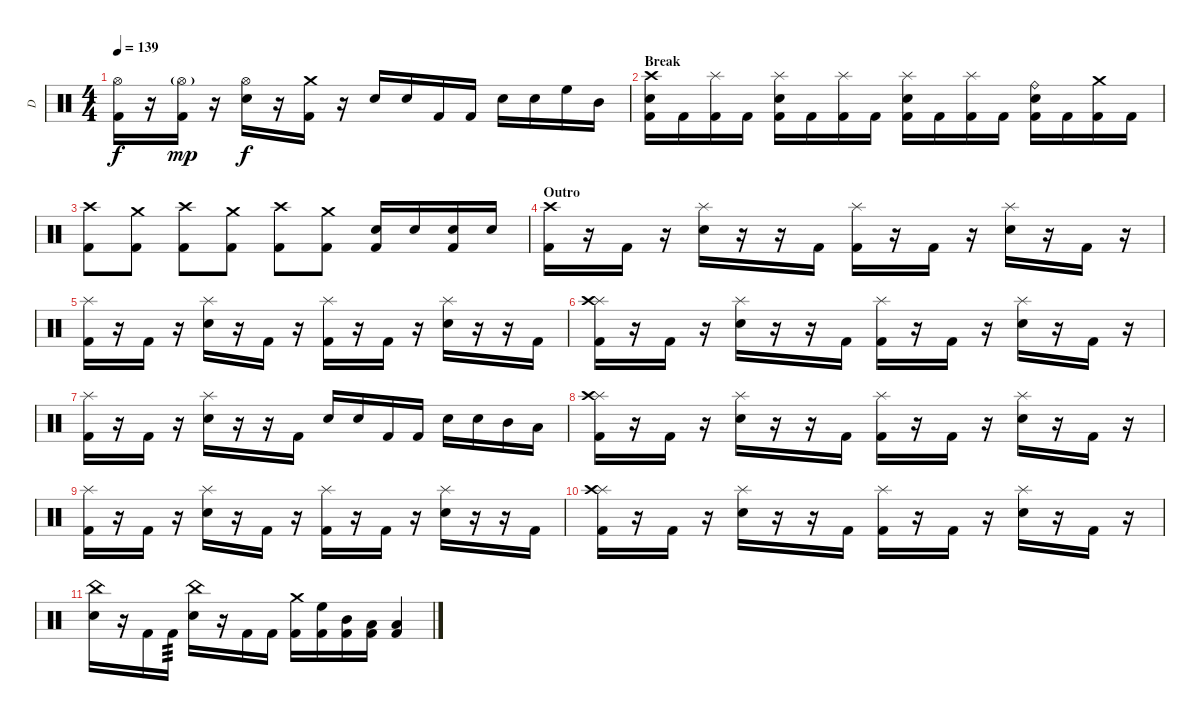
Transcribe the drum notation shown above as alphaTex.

\track ("D" "D") {instrument percussion}
\staff {score}
\articulation defaults
\ts (4 4)
\tempo 139
\clef neutral
\ks c
("Hi-Hat (open)" "Kick (hit) 2").16{dy f} r.16 ("Hi-Hat (open)"{g} "Kick (hit) 2").16{dy mp} r.16 ("Hi-Hat (open)" "Electric Snare (hit)").16{dy f} r.16 ("Crash medium (hit)" "Kick (hit) 2").16 r.16 "Electric Snare (hit)".16 "Electric Snare (hit)".16 "Kick (hit) 2".16 "Kick (hit) 2".16 "Electric Snare (hit)".16 "Electric Snare (hit)".16 "High Floor Tom (hit)".16 "Mid Tom (hit)".16 |
\section ("" "Break")
("Crash high (hit)" "Electric Snare (hit)" "Kick (hit) 2").16 "Kick (hit) 2".16 ("Splash (hit)" "Kick (hit) 2").16 "Kick (hit) 2".16 ("Splash (hit)" "Electric Snare (hit)" "Kick (hit) 2").16 "Kick (hit) 2".16 ("Splash (hit)" "Kick (hit) 2").16 "Kick (hit) 2".16 ("Splash (hit)" "Electric Snare (hit)" "Kick (hit) 2").16 "Kick (hit) 2".16 ("Splash (hit)" "Kick (hit) 2").16 "Kick (hit) 2".16 ("Ride (bell)" "Electric Snare (hit)" "Kick (hit) 2").16 "Kick (hit) 2".16 ("Crash medium (hit)" "Kick (hit) 2").16 "Kick (hit) 2".16 |
("Crash high (hit)" "Kick (hit) 2").8 ("Crash medium (hit)" "Kick (hit) 2").8 ("Crash high (hit)" "Kick (hit) 2").8 ("Crash medium (hit)" "Kick (hit) 2").8 ("Crash high (hit)" "Kick (hit) 2").8 ("Crash medium (hit)" "Kick (hit) 2").8 ("Electric Snare (hit)" "Kick (hit) 2").16 "Electric Snare (hit)".16 ("Electric Snare (hit)" "Kick (hit) 2").16 "Electric Snare (hit)".16 |
\section ("" "Outro")
("Crash high (hit)" "Kick (hit) 2").16 r.16 "Kick (hit) 2".16 r.16 ("Splash (hit)" "Electric Snare (hit)").16 r.16 r.16 "Kick (hit) 2".16 ("Splash (hit)" "Kick (hit) 2").16 r.16 "Kick (hit) 2".16 r.16 ("Splash (hit)" "Electric Snare (hit)").16 r.16 "Kick (hit) 2".16 r.16 |
("Splash (hit)" "Kick (hit) 2").16 r.16 "Kick (hit) 2".16 r.16 ("Splash (hit)" "Electric Snare (hit)").16 r.16 "Kick (hit) 2".16 r.16 ("Splash (hit)" "Kick (hit) 2").16 r.16 "Kick (hit) 2".16 r.16 ("Splash (hit)" "Electric Snare (hit)").16 r.16 r.16 "Kick (hit) 2".16 |
("Splash (hit)" "Crash high (hit)" "Kick (hit) 2").16 r.16 "Kick (hit) 2".16 r.16 ("Splash (hit)" "Electric Snare (hit)").16 r.16 r.16 "Kick (hit) 2".16 ("Splash (hit)" "Kick (hit) 2").16 r.16 "Kick (hit) 2".16 r.16 ("Splash (hit)" "Electric Snare (hit)").16 r.16 "Kick (hit) 2".16 r.16 |
("Splash (hit)" "Kick (hit) 2").16 r.16 "Kick (hit) 2".16 r.16 ("Splash (hit)" "Electric Snare (hit)").16 r.16 r.16 "Kick (hit) 2".16 "Electric Snare (hit)".16 "Electric Snare (hit)".16 "Kick (hit) 2".16 "Kick (hit) 2".16 "Electric Snare (hit)".16 "Electric Snare (hit)".16 "Mid Tom (hit)".16 "Low Tom (hit)".16 |
("Splash (hit)" "Crash high (hit)" "Kick (hit) 2").16 r.16 "Kick (hit) 2".16 r.16 ("Splash (hit)" "Electric Snare (hit)").16 r.16 r.16 "Kick (hit) 2".16 ("Splash (hit)" "Kick (hit) 2").16 r.16 "Kick (hit) 2".16 r.16 ("Splash (hit)" "Electric Snare (hit)").16 r.16 "Kick (hit) 2".16 r.16 |
("Splash (hit)" "Kick (hit) 2").16 r.16 "Kick (hit) 2".16 r.16 ("Splash (hit)" "Electric Snare (hit)").16 r.16 "Kick (hit) 2".16 r.16 ("Splash (hit)" "Kick (hit) 2").16 r.16 "Kick (hit) 2".16 r.16 ("Splash (hit)" "Electric Snare (hit)").16 r.16 r.16 "Kick (hit) 2".16 |
("Splash (hit)" "Crash high (hit)" "Kick (hit) 2").16 r.16 "Kick (hit) 2".16 r.16 ("Splash (hit)" "Electric Snare (hit)").16 r.16 r.16 "Kick (hit) 2".16 ("Splash (hit)" "Kick (hit) 2").16 r.16 "Kick (hit) 2".16 r.16 ("Splash (hit)" "Electric Snare (hit)").16 r.16 "Kick (hit) 2".16 r.16 |
("China (hit)" "Electric Snare (hit)").16 r.16 "Kick (hit) 2".16 "Kick (hit) 2".16{tp 3} ("China (hit)" "Electric Snare (hit)").16 r.16 "Kick (hit) 2".16 "Kick (hit) 2".16 ("Crash medium (hit)" "Kick (hit) 2").16 ("High Floor Tom (hit)" "Kick (hit) 2").16 ("Mid Tom (hit)" "Kick (hit) 2").16 ("Low Tom (hit)" "Kick (hit) 2").16 ("Low Floor Tom (hit)" "Kick (hit) 2").4
